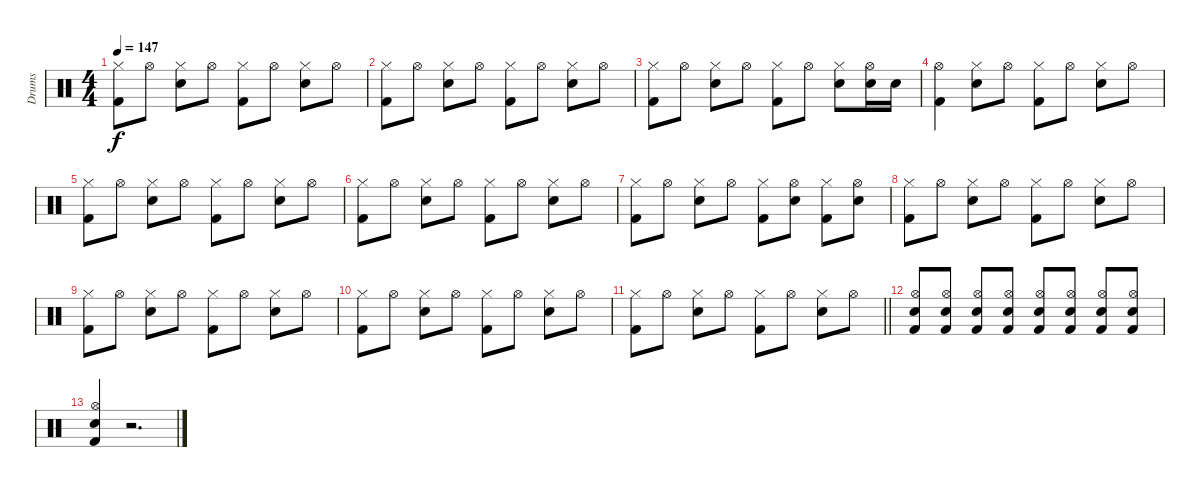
\track ("Drums" "Drums") {instrument percussion}
\staff {score}
\articulation defaults
\ts (4 4)
\tempo 147
\clef neutral
\ks c
("Hi-Hat (closed)" "Kick (hit) 2").8{dy f} "Hi-Hat (open)".8 ("Hi-Hat (closed)" "Snare (hit) 2").8 "Hi-Hat (open)".8 ("Hi-Hat (closed)" "Kick (hit) 2").8 "Hi-Hat (open)".8 ("Hi-Hat (closed)" "Snare (hit) 2").8 "Hi-Hat (open)".8 |
("Hi-Hat (closed)" "Kick (hit) 2").8 "Hi-Hat (open)".8 ("Hi-Hat (closed)" "Snare (hit) 2").8 "Hi-Hat (open)".8 ("Hi-Hat (closed)" "Kick (hit) 2").8 "Hi-Hat (open)".8 ("Hi-Hat (closed)" "Snare (hit) 2").8 "Hi-Hat (open)".8 |
("Hi-Hat (closed)" "Kick (hit) 2").8 "Hi-Hat (open)".8 ("Hi-Hat (closed)" "Snare (hit) 2").8 "Hi-Hat (open)".8 ("Hi-Hat (closed)" "Kick (hit) 2").8 "Hi-Hat (open)".8 ("Hi-Hat (closed)" "Snare (hit) 2").8 ("Hi-Hat (open)" "Snare (hit) 2").16 "Snare (hit) 2".16 |
("Hi-Hat (open)" "Kick (hit) 2").4 ("Hi-Hat (closed)" "Snare (hit) 2").8 "Hi-Hat (open)".8 ("Hi-Hat (closed)" "Kick (hit) 2").8 "Hi-Hat (open)".8 ("Hi-Hat (closed)" "Snare (hit) 2").8 "Hi-Hat (open)".8 |
("Hi-Hat (closed)" "Kick (hit) 2").8 "Hi-Hat (open)".8 ("Hi-Hat (closed)" "Snare (hit) 2").8 "Hi-Hat (open)".8 ("Hi-Hat (closed)" "Kick (hit) 2").8 "Hi-Hat (open)".8 ("Hi-Hat (closed)" "Snare (hit) 2").8 "Hi-Hat (open)".8 |
("Hi-Hat (closed)" "Kick (hit) 2").8 "Hi-Hat (open)".8 ("Hi-Hat (closed)" "Snare (hit) 2").8 "Hi-Hat (open)".8 ("Hi-Hat (closed)" "Kick (hit) 2").8 "Hi-Hat (open)".8 ("Hi-Hat (closed)" "Snare (hit) 2").8 "Hi-Hat (open)".8 |
("Hi-Hat (closed)" "Kick (hit) 2").8 "Hi-Hat (open)".8 ("Hi-Hat (closed)" "Snare (hit) 2").8 "Hi-Hat (open)".8 ("Hi-Hat (closed)" "Kick (hit) 2").8 ("Hi-Hat (open)" "Snare (hit) 2").8 ("Hi-Hat (closed)" "Kick (hit) 2").8 ("Hi-Hat (open)" "Snare (hit) 2").8 |
("Hi-Hat (closed)" "Kick (hit) 2").8 "Hi-Hat (open)".8 ("Hi-Hat (closed)" "Snare (hit) 2").8 "Hi-Hat (open)".8 ("Hi-Hat (closed)" "Kick (hit) 2").8 "Hi-Hat (open)".8 ("Hi-Hat (closed)" "Snare (hit) 2").8 "Hi-Hat (open)".8 |
("Hi-Hat (closed)" "Kick (hit) 2").8 "Hi-Hat (open)".8 ("Hi-Hat (closed)" "Snare (hit) 2").8 "Hi-Hat (open)".8 ("Hi-Hat (closed)" "Kick (hit) 2").8 "Hi-Hat (open)".8 ("Hi-Hat (closed)" "Snare (hit) 2").8 "Hi-Hat (open)".8 |
("Hi-Hat (closed)" "Kick (hit) 2").8 "Hi-Hat (open)".8 ("Hi-Hat (closed)" "Snare (hit) 2").8 "Hi-Hat (open)".8 ("Hi-Hat (closed)" "Kick (hit) 2").8 "Hi-Hat (open)".8 ("Hi-Hat (closed)" "Snare (hit) 2").8 "Hi-Hat (open)".8 |
\barLineRight lightlight
("Hi-Hat (closed)" "Kick (hit) 2").8 "Hi-Hat (open)".8 ("Hi-Hat (closed)" "Snare (hit) 2").8 "Hi-Hat (open)".8 ("Hi-Hat (closed)" "Kick (hit) 2").8 "Hi-Hat (open)".8 ("Hi-Hat (closed)" "Snare (hit) 2").8 "Hi-Hat (open)".8 |
("Hi-Hat (open)" "Snare (hit) 2" "Kick (hit) 2").8 ("Hi-Hat (open)" "Snare (hit) 2" "Kick (hit) 2").8 ("Hi-Hat (open)" "Snare (hit) 2" "Kick (hit) 2").8 ("Hi-Hat (open)" "Snare (hit) 2" "Kick (hit) 2").8 ("Hi-Hat (open)" "Snare (hit) 2" "Kick (hit) 2").8 ("Hi-Hat (open)" "Snare (hit) 2" "Kick (hit) 2").8 ("Hi-Hat (open)" "Snare (hit) 2" "Kick (hit) 2").8 ("Hi-Hat (open)" "Snare (hit) 2" "Kick (hit) 2").8 |
("Hi-Hat (open)" "Snare (hit) 2" "Kick (hit) 2").4 r.2{d}
